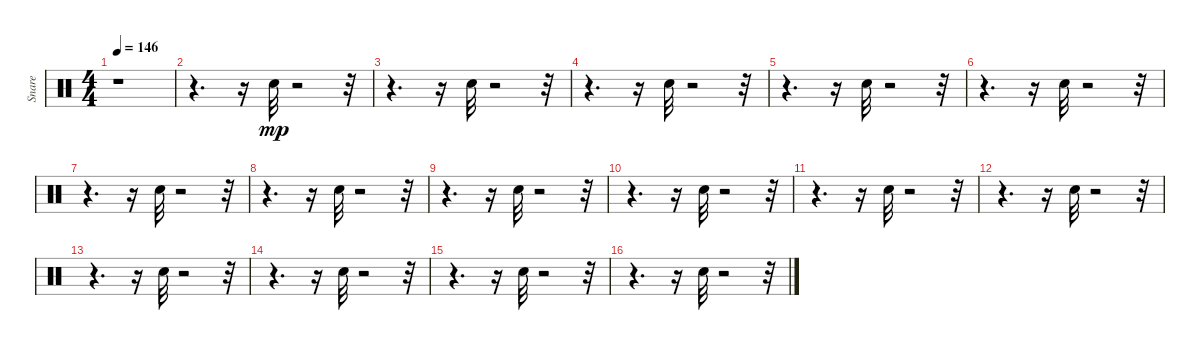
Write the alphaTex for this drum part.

\track ("Snare" "Snare") {instrument percussion}
\staff {score}
\articulation defaults
\ts (4 4)
\tempo 146
\clef neutral
\ks c
r.1{dy mp} |
r.4{d} r.16 "Electric Snare (hit)".32 r.2 r.32 |
r.4{d} r.16 "Electric Snare (hit)".32 r.2 r.32 |
r.4{d} r.16 "Electric Snare (hit)".32 r.2 r.32 |
r.4{d} r.16 "Electric Snare (hit)".32 r.2 r.32 |
r.4{d} r.16 "Electric Snare (hit)".32 r.2 r.32 |
r.4{d} r.16 "Electric Snare (hit)".32 r.2 r.32 |
r.4{d} r.16 "Electric Snare (hit)".32 r.2 r.32 |
r.4{d} r.16 "Electric Snare (hit)".32 r.2 r.32 |
r.4{d} r.16 "Electric Snare (hit)".32 r.2 r.32 |
r.4{d} r.16 "Electric Snare (hit)".32 r.2 r.32 |
r.4{d} r.16 "Electric Snare (hit)".32 r.2 r.32 |
r.4{d} r.16 "Electric Snare (hit)".32 r.2 r.32 |
r.4{d} r.16 "Electric Snare (hit)".32 r.2 r.32 |
r.4{d} r.16 "Electric Snare (hit)".32 r.2 r.32 |
r.4{d} r.16 "Electric Snare (hit)".32 r.2 r.32
